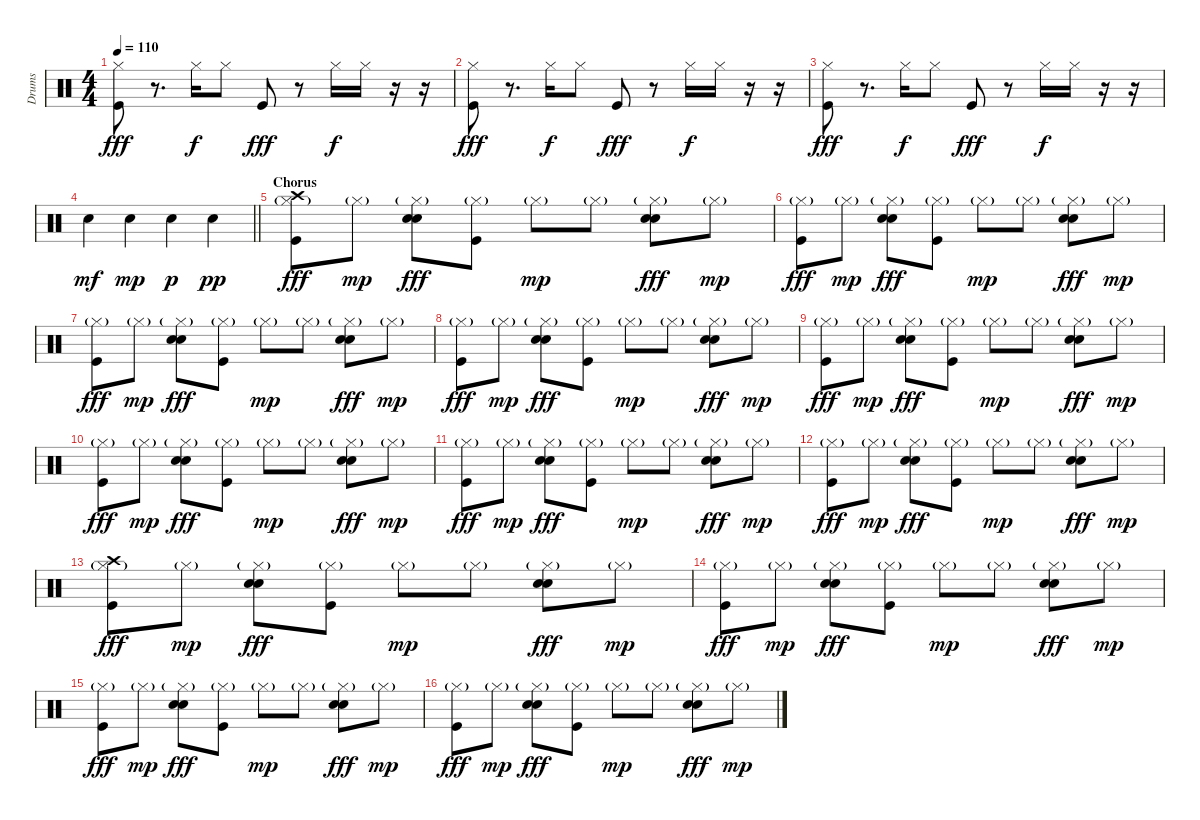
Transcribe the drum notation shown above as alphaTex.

\track ("Drums" "Drums") {instrument percussion}
\staff {score}
\articulation defaults
\ts (4 4)
\tempo 110
\clef neutral
\ks c
("Hi-Hat (closed)" "Kick (hit)").8{dy fff} r.8{d} "Hi-Hat (closed)".16{dy f} "Hi-Hat (closed)".8 "Kick (hit)".8{dy fff} r.8 "Hi-Hat (closed)".16{dy f} "Hi-Hat (closed)".16 r.16 r.16 |
("Hi-Hat (closed)" "Kick (hit)").8{dy fff} r.8{d} "Hi-Hat (closed)".16{dy f} "Hi-Hat (closed)".8 "Kick (hit)".8{dy fff} r.8 "Hi-Hat (closed)".16{dy f} "Hi-Hat (closed)".16 r.16 r.16 |
("Hi-Hat (closed)" "Kick (hit)").8{dy fff} r.8{d} "Hi-Hat (closed)".16{dy f} "Hi-Hat (closed)".8 "Kick (hit)".8{dy fff} r.8 "Hi-Hat (closed)".16{dy f} "Hi-Hat (closed)".16 r.16 r.16 |
\barLineRight lightlight "Electric Snare (hit)".4{dy mf} "Electric Snare (hit)".4{dy mp} "Electric Snare (hit)".4{dy p} "Electric Snare (hit)".4{dy pp}
|
\section ("" "Chorus")
("Hi-Hat (closed)"{g} "Kick (hit)" "Crash high (hit)").8{dy fff} "Hi-Hat (closed)"{g}.8{dy mp} ("Hi-Hat (closed)"{g} "Electric Snare (hit)" "Hand Clap (hit)").8{dy fff} ("Hi-Hat (closed)"{g} "Kick (hit)").8 "Hi-Hat (closed)"{g}.8{dy mp} "Hi-Hat (closed)"{g}.8 ("Hi-Hat (closed)"{g} "Electric Snare (hit)" "Hand Clap (hit)").8{dy fff} "Hi-Hat (closed)"{g}.8{dy mp} |
("Hi-Hat (closed)"{g} "Kick (hit)").8{dy fff} "Hi-Hat (closed)"{g}.8{dy mp} ("Hi-Hat (closed)"{g} "Electric Snare (hit)" "Hand Clap (hit)").8{dy fff} ("Hi-Hat (closed)"{g} "Kick (hit)").8 "Hi-Hat (closed)"{g}.8{dy mp} "Hi-Hat (closed)"{g}.8 ("Hi-Hat (closed)"{g} "Electric Snare (hit)" "Hand Clap (hit)").8{dy fff} "Hi-Hat (closed)"{g}.8{dy mp} |
("Hi-Hat (closed)"{g} "Kick (hit)").8{dy fff} "Hi-Hat (closed)"{g}.8{dy mp} ("Hi-Hat (closed)"{g} "Electric Snare (hit)" "Hand Clap (hit)").8{dy fff} ("Hi-Hat (closed)"{g} "Kick (hit)").8 "Hi-Hat (closed)"{g}.8{dy mp} "Hi-Hat (closed)"{g}.8 ("Hi-Hat (closed)"{g} "Electric Snare (hit)" "Hand Clap (hit)").8{dy fff} "Hi-Hat (closed)"{g}.8{dy mp} |
("Hi-Hat (closed)"{g} "Kick (hit)").8{dy fff} "Hi-Hat (closed)"{g}.8{dy mp} ("Hi-Hat (closed)"{g} "Electric Snare (hit)" "Hand Clap (hit)").8{dy fff} ("Hi-Hat (closed)"{g} "Kick (hit)").8 "Hi-Hat (closed)"{g}.8{dy mp} "Hi-Hat (closed)"{g}.8 ("Hi-Hat (closed)"{g} "Electric Snare (hit)" "Hand Clap (hit)").8{dy fff} "Hi-Hat (closed)"{g}.8{dy mp} |
("Hi-Hat (closed)"{g} "Kick (hit)").8{dy fff} "Hi-Hat (closed)"{g}.8{dy mp} ("Hi-Hat (closed)"{g} "Electric Snare (hit)" "Hand Clap (hit)").8{dy fff} ("Hi-Hat (closed)"{g} "Kick (hit)").8 "Hi-Hat (closed)"{g}.8{dy mp} "Hi-Hat (closed)"{g}.8 ("Hi-Hat (closed)"{g} "Electric Snare (hit)" "Hand Clap (hit)").8{dy fff} "Hi-Hat (closed)"{g}.8{dy mp} |
("Hi-Hat (closed)"{g} "Kick (hit)").8{dy fff} "Hi-Hat (closed)"{g}.8{dy mp} ("Hi-Hat (closed)"{g} "Electric Snare (hit)" "Hand Clap (hit)").8{dy fff} ("Hi-Hat (closed)"{g} "Kick (hit)").8 "Hi-Hat (closed)"{g}.8{dy mp} "Hi-Hat (closed)"{g}.8 ("Hi-Hat (closed)"{g} "Electric Snare (hit)" "Hand Clap (hit)").8{dy fff} "Hi-Hat (closed)"{g}.8{dy mp} |
("Hi-Hat (closed)"{g} "Kick (hit)").8{dy fff} "Hi-Hat (closed)"{g}.8{dy mp} ("Hi-Hat (closed)"{g} "Electric Snare (hit)" "Hand Clap (hit)").8{dy fff} ("Hi-Hat (closed)"{g} "Kick (hit)").8 "Hi-Hat (closed)"{g}.8{dy mp} "Hi-Hat (closed)"{g}.8 ("Hi-Hat (closed)"{g} "Electric Snare (hit)" "Hand Clap (hit)").8{dy fff} "Hi-Hat (closed)"{g}.8{dy mp} |
("Hi-Hat (closed)"{g} "Kick (hit)").8{dy fff} "Hi-Hat (closed)"{g}.8{dy mp} ("Hi-Hat (closed)"{g} "Electric Snare (hit)" "Hand Clap (hit)").8{dy fff} ("Hi-Hat (closed)"{g} "Kick (hit)").8 "Hi-Hat (closed)"{g}.8{dy mp} "Hi-Hat (closed)"{g}.8 ("Hi-Hat (closed)"{g} "Electric Snare (hit)" "Hand Clap (hit)").8{dy fff} "Hi-Hat (closed)"{g}.8{dy mp} |
("Hi-Hat (closed)"{g} "Kick (hit)" "Crash high (hit)").8{dy fff} "Hi-Hat (closed)"{g}.8{dy mp} ("Hi-Hat (closed)"{g} "Electric Snare (hit)" "Hand Clap (hit)").8{dy fff} ("Hi-Hat (closed)"{g} "Kick (hit)").8 "Hi-Hat (closed)"{g}.8{dy mp} "Hi-Hat (closed)"{g}.8 ("Hi-Hat (closed)"{g} "Electric Snare (hit)" "Hand Clap (hit)").8{dy fff} "Hi-Hat (closed)"{g}.8{dy mp} |
("Hi-Hat (closed)"{g} "Kick (hit)").8{dy fff} "Hi-Hat (closed)"{g}.8{dy mp} ("Hi-Hat (closed)"{g} "Electric Snare (hit)" "Hand Clap (hit)").8{dy fff} ("Hi-Hat (closed)"{g} "Kick (hit)").8 "Hi-Hat (closed)"{g}.8{dy mp} "Hi-Hat (closed)"{g}.8 ("Hi-Hat (closed)"{g} "Electric Snare (hit)" "Hand Clap (hit)").8{dy fff} "Hi-Hat (closed)"{g}.8{dy mp} |
("Hi-Hat (closed)"{g} "Kick (hit)").8{dy fff} "Hi-Hat (closed)"{g}.8{dy mp} ("Hi-Hat (closed)"{g} "Electric Snare (hit)" "Hand Clap (hit)").8{dy fff} ("Hi-Hat (closed)"{g} "Kick (hit)").8 "Hi-Hat (closed)"{g}.8{dy mp} "Hi-Hat (closed)"{g}.8 ("Hi-Hat (closed)"{g} "Electric Snare (hit)" "Hand Clap (hit)").8{dy fff} "Hi-Hat (closed)"{g}.8{dy mp} |
("Hi-Hat (closed)"{g} "Kick (hit)").8{dy fff} "Hi-Hat (closed)"{g}.8{dy mp} ("Hi-Hat (closed)"{g} "Electric Snare (hit)" "Hand Clap (hit)").8{dy fff} ("Hi-Hat (closed)"{g} "Kick (hit)").8 "Hi-Hat (closed)"{g}.8{dy mp} "Hi-Hat (closed)"{g}.8 ("Hi-Hat (closed)"{g} "Electric Snare (hit)" "Hand Clap (hit)").8{dy fff} "Hi-Hat (closed)"{g}.8{dy mp}
